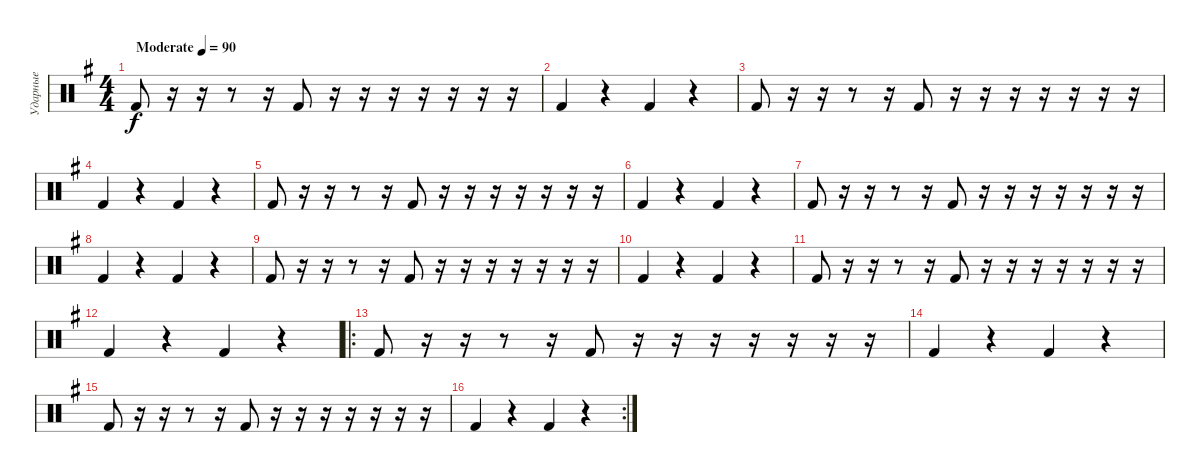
\track ("Ударные" "Ударные") {instrument percussion}
\staff {score}
\articulation defaults
\ts (4 4)
\tempo (90 "Moderate")
\clef neutral
\ks g "Kick (hit) 2".8{dy f}
r.16 r.16 r.8 r.16 "Kick (hit) 2".8 r.16 r.16 r.16 r.16 r.16 r.16 r.16 |
"Kick (hit) 2".4 r.4 "Kick (hit) 2".4 r.4 |
"Kick (hit) 2".8 r.16 r.16 r.8 r.16 "Kick (hit) 2".8 r.16 r.16 r.16 r.16 r.16 r.16 r.16 |
"Kick (hit) 2".4 r.4 "Kick (hit) 2".4 r.4 |
"Kick (hit) 2".8 r.16 r.16 r.8 r.16 "Kick (hit) 2".8 r.16 r.16 r.16 r.16 r.16 r.16 r.16 |
"Kick (hit) 2".4 r.4 "Kick (hit) 2".4 r.4 |
"Kick (hit) 2".8 r.16 r.16 r.8 r.16 "Kick (hit) 2".8 r.16 r.16 r.16 r.16 r.16 r.16 r.16 |
"Kick (hit) 2".4 r.4 "Kick (hit) 2".4 r.4 |
"Kick (hit) 2".8 r.16 r.16 r.8 r.16 "Kick (hit) 2".8 r.16 r.16 r.16 r.16 r.16 r.16 r.16 |
"Kick (hit) 2".4 r.4 "Kick (hit) 2".4 r.4 |
"Kick (hit) 2".8 r.16 r.16 r.8 r.16 "Kick (hit) 2".8 r.16 r.16 r.16 r.16 r.16 r.16 r.16 |
"Kick (hit) 2".4 r.4 "Kick (hit) 2".4 r.4 |
\ro "Kick (hit) 2".8
r.16 r.16 r.8 r.16 "Kick (hit) 2".8 r.16 r.16 r.16 r.16 r.16 r.16 r.16 |
"Kick (hit) 2".4 r.4 "Kick (hit) 2".4 r.4 |
"Kick (hit) 2".8 r.16 r.16 r.8 r.16 "Kick (hit) 2".8 r.16 r.16 r.16 r.16 r.16 r.16 r.16 |
\rc 2 "Kick (hit) 2".4
r.4 "Kick (hit) 2".4 r.4
